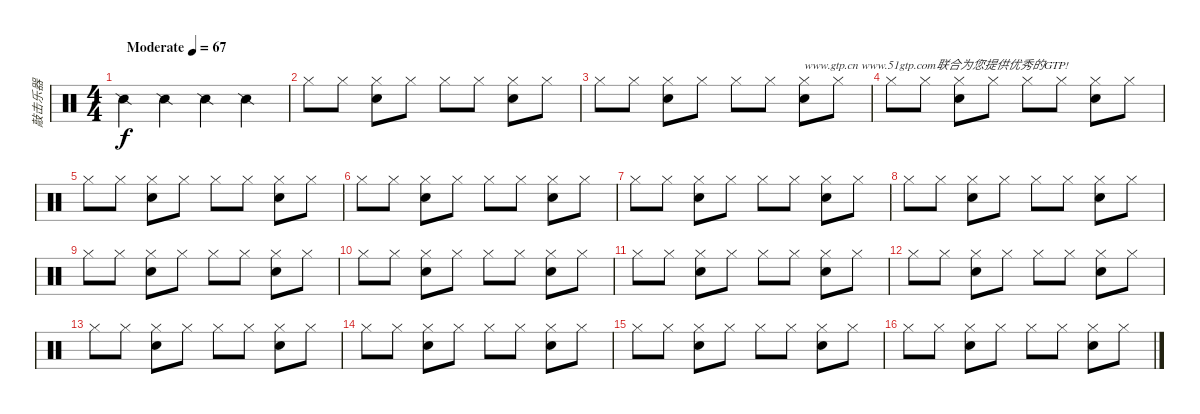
\track ("敲击乐器" "敲击乐器") {instrument percussion}
\staff {score}
\articulation defaults
\ts (4 4)
\tempo (67 "Moderate")
\clef neutral
\ks c "Snare (side stick) 2".4{dy f} "Snare (side stick) 2".4 "Snare (side stick) 2".4 "Snare (side stick) 2".4
|
"Hi-Hat (closed)".8 "Hi-Hat (closed)".8 ("Hi-Hat (closed)" "Electric Snare (hit)").8 "Hi-Hat (closed)".8 "Hi-Hat (closed)".8 "Hi-Hat (closed)".8 ("Hi-Hat (closed)" "Electric Snare (hit)").8 "Hi-Hat (closed)".8 |
"Hi-Hat (closed)".8 "Hi-Hat (closed)".8 ("Hi-Hat (closed)" "Electric Snare (hit)").8 "Hi-Hat (closed)".8 "Hi-Hat (closed)".8 "Hi-Hat (closed)".8 ("Hi-Hat (closed)" "Electric Snare (hit)").8{txt "www.gtp.cn www.51gtp.com联合为您提供优秀的GTP!"} "Hi-Hat (closed)".8 |
"Hi-Hat (closed)".8 "Hi-Hat (closed)".8 ("Hi-Hat (closed)" "Electric Snare (hit)").8 "Hi-Hat (closed)".8 "Hi-Hat (closed)".8 "Hi-Hat (closed)".8 ("Hi-Hat (closed)" "Electric Snare (hit)").8 "Hi-Hat (closed)".8 |
"Hi-Hat (closed)".8 "Hi-Hat (closed)".8 ("Hi-Hat (closed)" "Electric Snare (hit)").8 "Hi-Hat (closed)".8 "Hi-Hat (closed)".8 "Hi-Hat (closed)".8 ("Hi-Hat (closed)" "Electric Snare (hit)").8 "Hi-Hat (closed)".8 |
"Hi-Hat (closed)".8 "Hi-Hat (closed)".8 ("Hi-Hat (closed)" "Electric Snare (hit)").8 "Hi-Hat (closed)".8 "Hi-Hat (closed)".8 "Hi-Hat (closed)".8 ("Hi-Hat (closed)" "Electric Snare (hit)").8 "Hi-Hat (closed)".8 |
"Hi-Hat (closed)".8 "Hi-Hat (closed)".8 ("Hi-Hat (closed)" "Electric Snare (hit)").8 "Hi-Hat (closed)".8 "Hi-Hat (closed)".8 "Hi-Hat (closed)".8 ("Hi-Hat (closed)" "Electric Snare (hit)").8 "Hi-Hat (closed)".8 |
"Hi-Hat (closed)".8 "Hi-Hat (closed)".8 ("Hi-Hat (closed)" "Electric Snare (hit)").8 "Hi-Hat (closed)".8 "Hi-Hat (closed)".8 "Hi-Hat (closed)".8 ("Hi-Hat (closed)" "Electric Snare (hit)").8 "Hi-Hat (closed)".8 |
"Hi-Hat (closed)".8 "Hi-Hat (closed)".8 ("Hi-Hat (closed)" "Electric Snare (hit)").8 "Hi-Hat (closed)".8 "Hi-Hat (closed)".8 "Hi-Hat (closed)".8 ("Hi-Hat (closed)" "Electric Snare (hit)").8 "Hi-Hat (closed)".8 |
"Hi-Hat (closed)".8 "Hi-Hat (closed)".8 ("Hi-Hat (closed)" "Electric Snare (hit)").8 "Hi-Hat (closed)".8 "Hi-Hat (closed)".8 "Hi-Hat (closed)".8 ("Hi-Hat (closed)" "Electric Snare (hit)").8 "Hi-Hat (closed)".8 |
"Hi-Hat (closed)".8 "Hi-Hat (closed)".8 ("Hi-Hat (closed)" "Electric Snare (hit)").8 "Hi-Hat (closed)".8 "Hi-Hat (closed)".8 "Hi-Hat (closed)".8 ("Hi-Hat (closed)" "Electric Snare (hit)").8 "Hi-Hat (closed)".8 |
"Hi-Hat (closed)".8 "Hi-Hat (closed)".8 ("Hi-Hat (closed)" "Electric Snare (hit)").8 "Hi-Hat (closed)".8 "Hi-Hat (closed)".8 "Hi-Hat (closed)".8 ("Hi-Hat (closed)" "Electric Snare (hit)").8 "Hi-Hat (closed)".8 |
"Hi-Hat (closed)".8 "Hi-Hat (closed)".8 ("Hi-Hat (closed)" "Electric Snare (hit)").8 "Hi-Hat (closed)".8 "Hi-Hat (closed)".8 "Hi-Hat (closed)".8 ("Hi-Hat (closed)" "Electric Snare (hit)").8 "Hi-Hat (closed)".8 |
"Hi-Hat (closed)".8 "Hi-Hat (closed)".8 ("Hi-Hat (closed)" "Electric Snare (hit)").8 "Hi-Hat (closed)".8 "Hi-Hat (closed)".8 "Hi-Hat (closed)".8 ("Hi-Hat (closed)" "Electric Snare (hit)").8 "Hi-Hat (closed)".8 |
"Hi-Hat (closed)".8 "Hi-Hat (closed)".8 ("Hi-Hat (closed)" "Electric Snare (hit)").8 "Hi-Hat (closed)".8 "Hi-Hat (closed)".8 "Hi-Hat (closed)".8 ("Hi-Hat (closed)" "Electric Snare (hit)").8 "Hi-Hat (closed)".8 |
"Hi-Hat (closed)".8 "Hi-Hat (closed)".8 ("Hi-Hat (closed)" "Electric Snare (hit)").8 "Hi-Hat (closed)".8 "Hi-Hat (closed)".8 "Hi-Hat (closed)".8 ("Hi-Hat (closed)" "Electric Snare (hit)").8 "Hi-Hat (closed)".8
